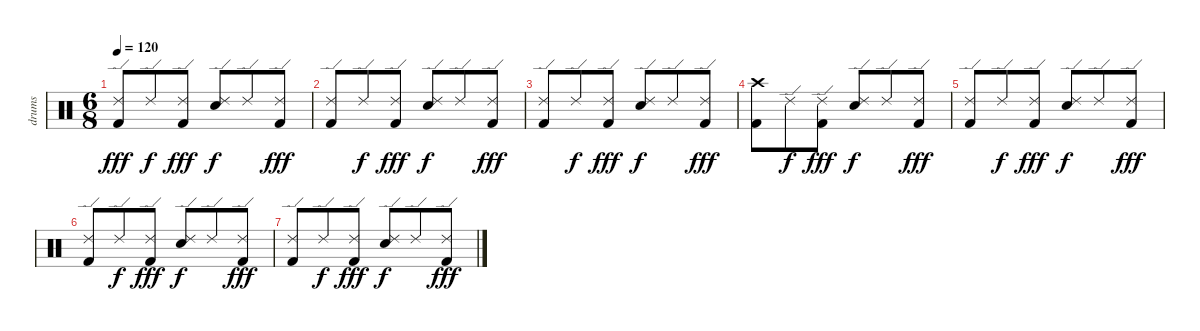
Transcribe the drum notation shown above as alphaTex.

\track ("drums" "drums") {instrument percussion}
\staff {score}
\articulation defaults
\ts (6 8)
\tempo 120
\clef neutral
\ks c
("Ride (edge) 2" "Kick (hit) 2").8{dy fff} "Ride (edge) 2".8{dy f} ("Ride (edge) 2" "Kick (hit) 2").8{dy fff} ("Ride (edge) 2" "Snare (hit) 2").8{dy f} "Ride (edge) 2".8 ("Ride (edge) 2" "Kick (hit) 2").8{dy fff} |
("Ride (edge) 2" "Kick (hit) 2").8 "Ride (edge) 2".8{dy f} ("Ride (edge) 2" "Kick (hit) 2").8{dy fff} ("Ride (edge) 2" "Snare (hit) 2").8{dy f} "Ride (edge) 2".8 ("Ride (edge) 2" "Kick (hit) 2").8{dy fff} |
("Ride (edge) 2" "Kick (hit) 2").8 "Ride (edge) 2".8{dy f} ("Ride (edge) 2" "Kick (hit) 2").8{dy fff} ("Ride (edge) 2" "Snare (hit) 2").8{dy f} "Ride (edge) 2".8 ("Ride (edge) 2" "Kick (hit) 2").8{dy fff} |
("Crash high (hit)" "Kick (hit) 2").8 "Ride (edge) 2".8{dy f} ("Ride (edge) 2" "Kick (hit) 2").8{dy fff} ("Ride (edge) 2" "Snare (hit) 2").8{dy f} "Ride (edge) 2".8 ("Ride (edge) 2" "Kick (hit) 2").8{dy fff} |
("Ride (edge) 2" "Kick (hit) 2").8 "Ride (edge) 2".8{dy f} ("Ride (edge) 2" "Kick (hit) 2").8{dy fff} ("Ride (edge) 2" "Snare (hit) 2").8{dy f} "Ride (edge) 2".8 ("Ride (edge) 2" "Kick (hit) 2").8{dy fff} |
("Ride (edge) 2" "Kick (hit) 2").8 "Ride (edge) 2".8{dy f} ("Ride (edge) 2" "Kick (hit) 2").8{dy fff} ("Ride (edge) 2" "Snare (hit) 2").8{dy f} "Ride (edge) 2".8 ("Ride (edge) 2" "Kick (hit) 2").8{dy fff} |
("Ride (edge) 2" "Kick (hit) 2").8 "Ride (edge) 2".8{dy f} ("Ride (edge) 2" "Kick (hit) 2").8{dy fff} ("Ride (edge) 2" "Snare (hit) 2").8{dy f} "Ride (edge) 2".8 ("Ride (edge) 2" "Kick (hit) 2").8{dy fff}
